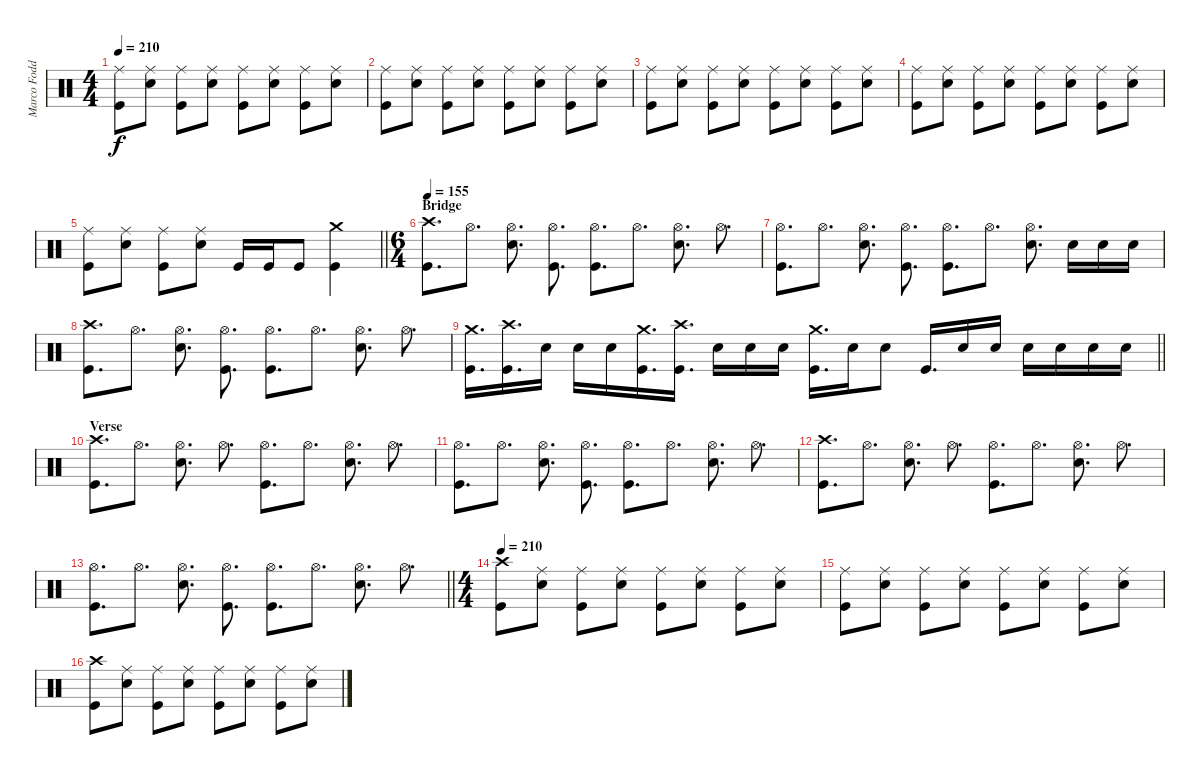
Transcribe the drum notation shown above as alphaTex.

\track ("Marco Foddis" "Marco Fodd") {instrument percussion}
\staff {score}
\articulation defaults
\ts (4 4)
\tempo 210
\clef neutral
\ks c
("Ride (middle)" "Kick (hit)").8{dy f} ("Ride (middle)" "Snare (hit) 2").8 ("Ride (middle)" "Kick (hit)").8 ("Ride (middle)" "Snare (hit) 2").8 ("Ride (middle)" "Kick (hit)").8 ("Ride (middle)" "Snare (hit) 2").8 ("Ride (middle)" "Kick (hit)").8 ("Ride (middle)" "Snare (hit) 2").8 |
("Ride (middle)" "Kick (hit)").8 ("Ride (middle)" "Snare (hit) 2").8 ("Ride (middle)" "Kick (hit)").8 ("Ride (middle)" "Snare (hit) 2").8 ("Ride (middle)" "Kick (hit)").8 ("Ride (middle)" "Snare (hit) 2").8 ("Ride (middle)" "Kick (hit)").8 ("Ride (middle)" "Snare (hit) 2").8 |
("Ride (middle)" "Kick (hit)").8 ("Ride (middle)" "Snare (hit) 2").8 ("Ride (middle)" "Kick (hit)").8 ("Ride (middle)" "Snare (hit) 2").8 ("Ride (middle)" "Kick (hit)").8 ("Ride (middle)" "Snare (hit) 2").8 ("Ride (middle)" "Kick (hit)").8 ("Ride (middle)" "Snare (hit) 2").8 |
("Ride (middle)" "Kick (hit)").8 ("Ride (middle)" "Snare (hit) 2").8 ("Ride (middle)" "Kick (hit)").8 ("Ride (middle)" "Snare (hit) 2").8 ("Ride (middle)" "Kick (hit)").8 ("Ride (middle)" "Snare (hit) 2").8 ("Ride (middle)" "Kick (hit)").8 ("Ride (middle)" "Snare (hit) 2").8 |
\barLineRight lightlight
("Ride (middle)" "Kick (hit)").8 ("Ride (middle)" "Snare (hit) 2").8 ("Ride (middle)" "Kick (hit)").8 ("Ride (middle)" "Snare (hit) 2").8 "Kick (hit)".16 "Kick (hit)".16 "Kick (hit)".8 ("Crash medium (hit)" "Kick (hit)").4 |
\ts (6 4)
\section ("" "Bridge")
\tempo 155
("Crash high (hit)" "Kick (hit)").8{d} "Hi-Hat (open)".8{d} ("Hi-Hat (open)" "Snare (hit) 2").8{d} ("Hi-Hat (open)" "Kick (hit)").8{d} ("Hi-Hat (open)" "Kick (hit)").8{d} "Hi-Hat (open)".8{d} ("Hi-Hat (open)" "Snare (hit) 2").8{d} "Hi-Hat (open)".8{d} |
("Hi-Hat (open)" "Kick (hit)").8{d} "Hi-Hat (open)".8{d} ("Hi-Hat (open)" "Snare (hit) 2").8{d} ("Hi-Hat (open)" "Kick (hit)").8{d} ("Hi-Hat (open)" "Kick (hit)").8{d} "Hi-Hat (open)".8{d} ("Hi-Hat (open)" "Snare (hit) 2").8{d} "Snare (hit) 2".16 "Snare (hit) 2".16 "Snare (hit) 2".16 |
("Crash high (hit)" "Kick (hit)").8{d} "Hi-Hat (open)".8{d} ("Hi-Hat (open)" "Snare (hit) 2").8{d} ("Hi-Hat (open)" "Kick (hit)").8{d} ("Hi-Hat (open)" "Kick (hit)").8{d} "Hi-Hat (open)".8{d} ("Hi-Hat (open)" "Snare (hit) 2").8{d} "Hi-Hat (open)".8{d} |
\barLineRight lightlight
("Crash medium (hit)" "Kick (hit)").16{d} ("Crash high (hit)" "Kick (hit)").16{d} "Snare (hit) 2".16 "Snare (hit) 2".16 "Snare (hit) 2".16 ("Crash medium (hit)" "Kick (hit)").16{d} ("Crash high (hit)" "Kick (hit)").16{d} "Snare (hit) 2".16 "Snare (hit) 2".16 "Snare (hit) 2".16 ("Crash medium (hit)" "Kick (hit)").16{d} "Snare (hit) 2".16 "Snare (hit) 2".8 "Kick (hit)".16{d} "Snare (hit) 2".16 "Snare (hit) 2".16 "Snare (hit) 2".16 "Snare (hit) 2".16 "Snare (hit) 2".16 "Snare (hit) 2".16 |
\section ("" "Verse")
("Crash high (hit)" "Kick (hit)").8{d} "Hi-Hat (open)".8{d} ("Hi-Hat (open)" "Snare (hit) 2").8{d} "Hi-Hat (open)".8{d} ("Hi-Hat (open)" "Kick (hit)").8{d} "Hi-Hat (open)".8{d} ("Hi-Hat (open)" "Snare (hit) 2").8{d} "Hi-Hat (open)".8{d} |
("Hi-Hat (open)" "Kick (hit)").8{d} "Hi-Hat (open)".8{d} ("Hi-Hat (open)" "Snare (hit) 2").8{d} ("Hi-Hat (open)" "Kick (hit)").8{d} ("Hi-Hat (open)" "Kick (hit)").8{d} "Hi-Hat (open)".8{d} ("Hi-Hat (open)" "Snare (hit) 2").8{d} "Hi-Hat (open)".8{d} |
("Crash high (hit)" "Kick (hit)").8{d} "Hi-Hat (open)".8{d} ("Hi-Hat (open)" "Snare (hit) 2").8{d} "Hi-Hat (open)".8{d} ("Hi-Hat (open)" "Kick (hit)").8{d} "Hi-Hat (open)".8{d} ("Hi-Hat (open)" "Snare (hit) 2").8{d} "Hi-Hat (open)".8{d} |
\barLineRight lightlight
("Hi-Hat (open)" "Kick (hit)").8{d} "Hi-Hat (open)".8{d} ("Hi-Hat (open)" "Snare (hit) 2").8{d} ("Hi-Hat (open)" "Kick (hit)").8{d} ("Hi-Hat (open)" "Kick (hit)").8{d} "Hi-Hat (open)".8{d} ("Hi-Hat (open)" "Snare (hit) 2").8{d} "Hi-Hat (open)".8{d} |
\ts (4 4)
\tempo 210
("Crash high (hit)" "Kick (hit)").8 ("Ride (middle)" "Snare (hit) 2").8 ("Ride (middle)" "Kick (hit)").8 ("Ride (middle)" "Snare (hit) 2").8 ("Ride (middle)" "Kick (hit)").8 ("Ride (middle)" "Snare (hit) 2").8 ("Ride (middle)" "Kick (hit)").8 ("Ride (middle)" "Snare (hit) 2").8 |
("Ride (middle)" "Kick (hit)").8 ("Ride (middle)" "Snare (hit) 2").8 ("Ride (middle)" "Kick (hit)").8 ("Ride (middle)" "Snare (hit) 2").8 ("Ride (middle)" "Kick (hit)").8 ("Ride (middle)" "Snare (hit) 2").8 ("Ride (middle)" "Kick (hit)").8 ("Ride (middle)" "Snare (hit) 2").8 |
("Crash high (hit)" "Kick (hit)").8 ("Ride (middle)" "Snare (hit) 2").8 ("Ride (middle)" "Kick (hit)").8 ("Ride (middle)" "Snare (hit) 2").8 ("Ride (middle)" "Kick (hit)").8 ("Ride (middle)" "Snare (hit) 2").8 ("Ride (middle)" "Kick (hit)").8 ("Ride (middle)" "Snare (hit) 2").8
